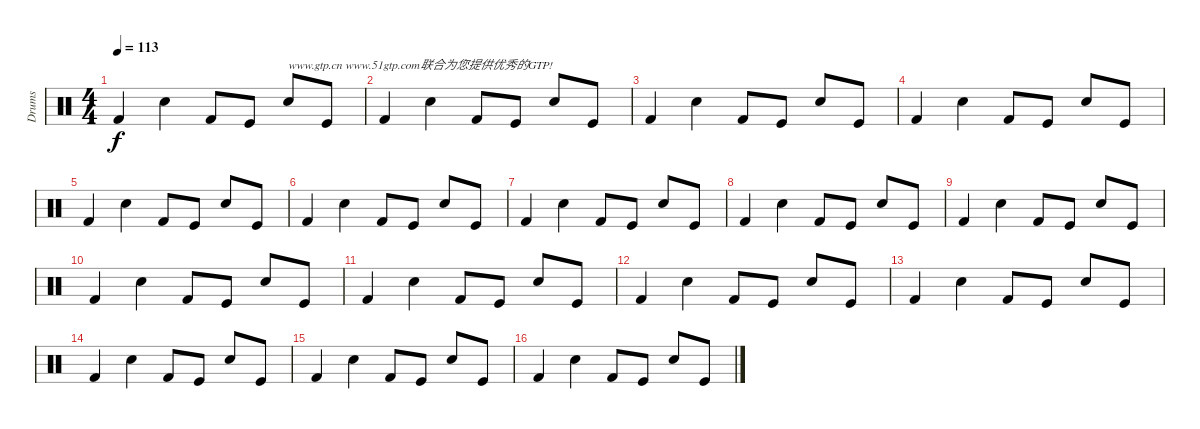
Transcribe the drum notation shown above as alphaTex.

\track ("Drums" "Drums") {instrument percussion}
\staff {score}
\articulation defaults
\ts (4 4)
\tempo 113
\clef neutral
\ks c "Kick (hit) 2".4{dy f} "Electric Snare (hit)".4 "Kick (hit) 2".8 "Kick (hit)".8 "Snare (hit) 2".8{txt "www.gtp.cn www.51gtp.com联合为您提供优秀的GTP!"} "Kick (hit)".8
|
"Kick (hit) 2".4 "Electric Snare (hit)".4 "Kick (hit) 2".8 "Kick (hit)".8 "Snare (hit) 2".8 "Kick (hit)".8 |
"Kick (hit) 2".4 "Electric Snare (hit)".4 "Kick (hit) 2".8 "Kick (hit)".8 "Snare (hit) 2".8 "Kick (hit)".8 |
"Kick (hit) 2".4 "Electric Snare (hit)".4 "Kick (hit) 2".8 "Kick (hit)".8 "Snare (hit) 2".8 "Kick (hit)".8 |
"Kick (hit) 2".4 "Electric Snare (hit)".4 "Kick (hit) 2".8 "Kick (hit)".8 "Snare (hit) 2".8 "Kick (hit)".8 |
"Kick (hit) 2".4 "Electric Snare (hit)".4 "Kick (hit) 2".8 "Kick (hit)".8 "Snare (hit) 2".8 "Kick (hit)".8 |
"Kick (hit) 2".4 "Electric Snare (hit)".4 "Kick (hit) 2".8 "Kick (hit)".8 "Snare (hit) 2".8 "Kick (hit)".8 |
"Kick (hit) 2".4 "Electric Snare (hit)".4 "Kick (hit) 2".8 "Kick (hit)".8 "Snare (hit) 2".8 "Kick (hit)".8 |
"Kick (hit) 2".4 "Electric Snare (hit)".4 "Kick (hit) 2".8 "Kick (hit)".8 "Snare (hit) 2".8 "Kick (hit)".8 |
"Kick (hit) 2".4 "Electric Snare (hit)".4 "Kick (hit) 2".8 "Kick (hit)".8 "Snare (hit) 2".8 "Kick (hit)".8 |
"Kick (hit) 2".4 "Electric Snare (hit)".4 "Kick (hit) 2".8 "Kick (hit)".8 "Snare (hit) 2".8 "Kick (hit)".8 |
"Kick (hit) 2".4 "Electric Snare (hit)".4 "Kick (hit) 2".8 "Kick (hit)".8 "Snare (hit) 2".8 "Kick (hit)".8 |
"Kick (hit) 2".4 "Electric Snare (hit)".4 "Kick (hit) 2".8 "Kick (hit)".8 "Snare (hit) 2".8 "Kick (hit)".8 |
"Kick (hit) 2".4 "Electric Snare (hit)".4 "Kick (hit) 2".8 "Kick (hit)".8 "Snare (hit) 2".8 "Kick (hit)".8 |
"Kick (hit) 2".4 "Electric Snare (hit)".4 "Kick (hit) 2".8 "Kick (hit)".8 "Snare (hit) 2".8 "Kick (hit)".8 |
"Kick (hit) 2".4 "Electric Snare (hit)".4 "Kick (hit) 2".8 "Kick (hit)".8 "Snare (hit) 2".8 "Kick (hit)".8
